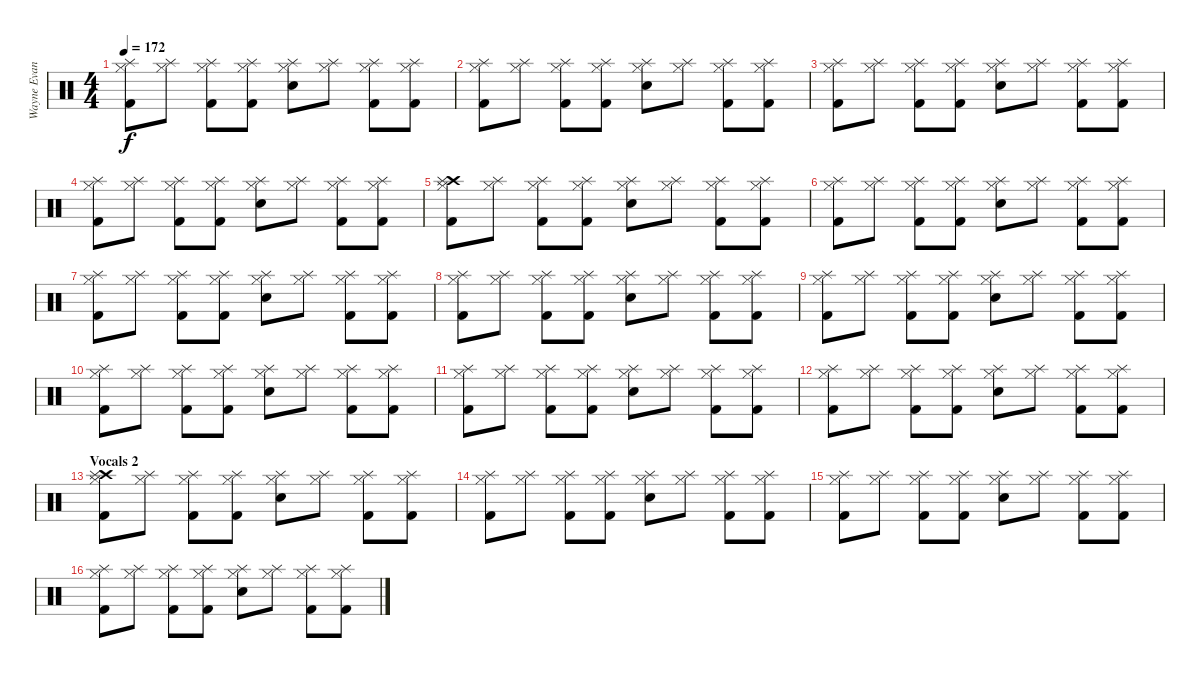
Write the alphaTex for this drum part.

\track ("Wayne Evans  " "Wayne Evan") {instrument percussion}
\staff {score}
\articulation defaults
\ts (4 4)
\tempo 172
\clef neutral
\ks c
("Splash (hit)" "Hi-Hat (closed)" "Kick (hit) 2").8{dy f} ("Splash (hit)" "Hi-Hat (closed)").8 ("Splash (hit)" "Hi-Hat (closed)" "Kick (hit) 2").8 ("Splash (hit)" "Hi-Hat (closed)" "Kick (hit) 2").8 ("Splash (hit)" "Hi-Hat (closed)" "Electric Snare (hit)").8 ("Splash (hit)" "Hi-Hat (closed)").8 ("Splash (hit)" "Hi-Hat (closed)" "Kick (hit) 2").8 ("Splash (hit)" "Hi-Hat (closed)" "Kick (hit) 2").8 |
("Splash (hit)" "Hi-Hat (closed)" "Kick (hit) 2").8 ("Splash (hit)" "Hi-Hat (closed)").8 ("Splash (hit)" "Hi-Hat (closed)" "Kick (hit) 2").8 ("Splash (hit)" "Hi-Hat (closed)" "Kick (hit) 2").8 ("Splash (hit)" "Hi-Hat (closed)" "Electric Snare (hit)").8 ("Splash (hit)" "Hi-Hat (closed)").8 ("Splash (hit)" "Hi-Hat (closed)" "Kick (hit) 2").8 ("Splash (hit)" "Hi-Hat (closed)" "Kick (hit) 2").8 |
("Splash (hit)" "Hi-Hat (closed)" "Kick (hit) 2").8 ("Splash (hit)" "Hi-Hat (closed)").8 ("Splash (hit)" "Hi-Hat (closed)" "Kick (hit) 2").8 ("Splash (hit)" "Hi-Hat (closed)" "Kick (hit) 2").8 ("Splash (hit)" "Hi-Hat (closed)" "Electric Snare (hit)").8 ("Splash (hit)" "Hi-Hat (closed)").8 ("Splash (hit)" "Hi-Hat (closed)" "Kick (hit) 2").8 ("Splash (hit)" "Hi-Hat (closed)" "Kick (hit) 2").8 |
("Splash (hit)" "Hi-Hat (closed)" "Kick (hit) 2").8 ("Splash (hit)" "Hi-Hat (closed)").8 ("Splash (hit)" "Hi-Hat (closed)" "Kick (hit) 2").8 ("Splash (hit)" "Hi-Hat (closed)" "Kick (hit) 2").8 ("Splash (hit)" "Hi-Hat (closed)" "Electric Snare (hit)").8 ("Splash (hit)" "Hi-Hat (closed)").8 ("Splash (hit)" "Hi-Hat (closed)" "Kick (hit) 2").8 ("Splash (hit)" "Hi-Hat (closed)" "Kick (hit) 2").8 |
("Crash high (hit)" "Splash (hit)" "Hi-Hat (closed)" "Kick (hit) 2").8 ("Splash (hit)" "Hi-Hat (closed)").8 ("Splash (hit)" "Hi-Hat (closed)" "Kick (hit) 2").8 ("Splash (hit)" "Hi-Hat (closed)" "Kick (hit) 2").8 ("Splash (hit)" "Hi-Hat (closed)" "Electric Snare (hit)").8 ("Splash (hit)" "Hi-Hat (closed)").8 ("Splash (hit)" "Hi-Hat (closed)" "Kick (hit) 2").8 ("Splash (hit)" "Hi-Hat (closed)" "Kick (hit) 2").8 |
("Splash (hit)" "Hi-Hat (closed)" "Kick (hit) 2").8 ("Splash (hit)" "Hi-Hat (closed)").8 ("Splash (hit)" "Hi-Hat (closed)" "Kick (hit) 2").8 ("Splash (hit)" "Hi-Hat (closed)" "Kick (hit) 2").8 ("Splash (hit)" "Hi-Hat (closed)" "Electric Snare (hit)").8 ("Splash (hit)" "Hi-Hat (closed)").8 ("Splash (hit)" "Hi-Hat (closed)" "Kick (hit) 2").8 ("Splash (hit)" "Hi-Hat (closed)" "Kick (hit) 2").8 |
("Splash (hit)" "Hi-Hat (closed)" "Kick (hit) 2").8 ("Splash (hit)" "Hi-Hat (closed)").8 ("Splash (hit)" "Hi-Hat (closed)" "Kick (hit) 2").8 ("Splash (hit)" "Hi-Hat (closed)" "Kick (hit) 2").8 ("Splash (hit)" "Hi-Hat (closed)" "Electric Snare (hit)").8 ("Splash (hit)" "Hi-Hat (closed)").8 ("Splash (hit)" "Hi-Hat (closed)" "Kick (hit) 2").8 ("Splash (hit)" "Hi-Hat (closed)" "Kick (hit) 2").8 |
("Splash (hit)" "Hi-Hat (closed)" "Kick (hit) 2").8 ("Splash (hit)" "Hi-Hat (closed)").8 ("Splash (hit)" "Hi-Hat (closed)" "Kick (hit) 2").8 ("Splash (hit)" "Hi-Hat (closed)" "Kick (hit) 2").8 ("Splash (hit)" "Hi-Hat (closed)" "Electric Snare (hit)").8 ("Splash (hit)" "Hi-Hat (closed)").8 ("Splash (hit)" "Hi-Hat (closed)" "Kick (hit) 2").8 ("Splash (hit)" "Hi-Hat (closed)" "Kick (hit) 2").8 |
("Splash (hit)" "Hi-Hat (closed)" "Kick (hit) 2").8 ("Splash (hit)" "Hi-Hat (closed)").8 ("Splash (hit)" "Hi-Hat (closed)" "Kick (hit) 2").8 ("Splash (hit)" "Hi-Hat (closed)" "Kick (hit) 2").8 ("Splash (hit)" "Hi-Hat (closed)" "Electric Snare (hit)").8 ("Splash (hit)" "Hi-Hat (closed)").8 ("Splash (hit)" "Hi-Hat (closed)" "Kick (hit) 2").8 ("Splash (hit)" "Hi-Hat (closed)" "Kick (hit) 2").8 |
("Splash (hit)" "Hi-Hat (closed)" "Kick (hit) 2").8 ("Splash (hit)" "Hi-Hat (closed)").8 ("Splash (hit)" "Hi-Hat (closed)" "Kick (hit) 2").8 ("Splash (hit)" "Hi-Hat (closed)" "Kick (hit) 2").8 ("Splash (hit)" "Hi-Hat (closed)" "Electric Snare (hit)").8 ("Splash (hit)" "Hi-Hat (closed)").8 ("Splash (hit)" "Hi-Hat (closed)" "Kick (hit) 2").8 ("Splash (hit)" "Hi-Hat (closed)" "Kick (hit) 2").8 |
("Splash (hit)" "Hi-Hat (closed)" "Kick (hit) 2").8 ("Splash (hit)" "Hi-Hat (closed)").8 ("Splash (hit)" "Hi-Hat (closed)" "Kick (hit) 2").8 ("Splash (hit)" "Hi-Hat (closed)" "Kick (hit) 2").8 ("Splash (hit)" "Hi-Hat (closed)" "Electric Snare (hit)").8 ("Splash (hit)" "Hi-Hat (closed)").8 ("Splash (hit)" "Hi-Hat (closed)" "Kick (hit) 2").8 ("Splash (hit)" "Hi-Hat (closed)" "Kick (hit) 2").8 |
("Splash (hit)" "Hi-Hat (closed)" "Kick (hit) 2").8 ("Splash (hit)" "Hi-Hat (closed)").8 ("Splash (hit)" "Hi-Hat (closed)" "Kick (hit) 2").8 ("Splash (hit)" "Hi-Hat (closed)" "Kick (hit) 2").8 ("Splash (hit)" "Hi-Hat (closed)" "Electric Snare (hit)").8 ("Splash (hit)" "Hi-Hat (closed)").8 ("Splash (hit)" "Hi-Hat (closed)" "Kick (hit) 2").8 ("Splash (hit)" "Hi-Hat (closed)" "Kick (hit) 2").8 |
\section ("" "Vocals 2")
("Crash high (hit)" "Splash (hit)" "Hi-Hat (closed)" "Kick (hit) 2").8 ("Splash (hit)" "Hi-Hat (closed)").8 ("Splash (hit)" "Hi-Hat (closed)" "Kick (hit) 2").8 ("Splash (hit)" "Hi-Hat (closed)" "Kick (hit) 2").8 ("Splash (hit)" "Hi-Hat (closed)" "Electric Snare (hit)").8 ("Splash (hit)" "Hi-Hat (closed)").8 ("Splash (hit)" "Hi-Hat (closed)" "Kick (hit) 2").8 ("Splash (hit)" "Hi-Hat (closed)" "Kick (hit) 2").8 |
("Splash (hit)" "Hi-Hat (closed)" "Kick (hit) 2").8 ("Splash (hit)" "Hi-Hat (closed)").8 ("Splash (hit)" "Hi-Hat (closed)" "Kick (hit) 2").8 ("Splash (hit)" "Hi-Hat (closed)" "Kick (hit) 2").8 ("Splash (hit)" "Hi-Hat (closed)" "Electric Snare (hit)").8 ("Splash (hit)" "Hi-Hat (closed)").8 ("Splash (hit)" "Hi-Hat (closed)" "Kick (hit) 2").8 ("Splash (hit)" "Hi-Hat (closed)" "Kick (hit) 2").8 |
("Splash (hit)" "Hi-Hat (closed)" "Kick (hit) 2").8 ("Splash (hit)" "Hi-Hat (closed)").8 ("Splash (hit)" "Hi-Hat (closed)" "Kick (hit) 2").8 ("Splash (hit)" "Hi-Hat (closed)" "Kick (hit) 2").8 ("Splash (hit)" "Hi-Hat (closed)" "Electric Snare (hit)").8 ("Splash (hit)" "Hi-Hat (closed)").8 ("Splash (hit)" "Hi-Hat (closed)" "Kick (hit) 2").8 ("Splash (hit)" "Hi-Hat (closed)" "Kick (hit) 2").8 |
("Splash (hit)" "Hi-Hat (closed)" "Kick (hit) 2").8 ("Splash (hit)" "Hi-Hat (closed)").8 ("Splash (hit)" "Hi-Hat (closed)" "Kick (hit) 2").8 ("Splash (hit)" "Hi-Hat (closed)" "Kick (hit) 2").8 ("Splash (hit)" "Hi-Hat (closed)" "Electric Snare (hit)").8 ("Splash (hit)" "Hi-Hat (closed)").8 ("Splash (hit)" "Hi-Hat (closed)" "Kick (hit) 2").8 ("Splash (hit)" "Hi-Hat (closed)" "Kick (hit) 2").8
